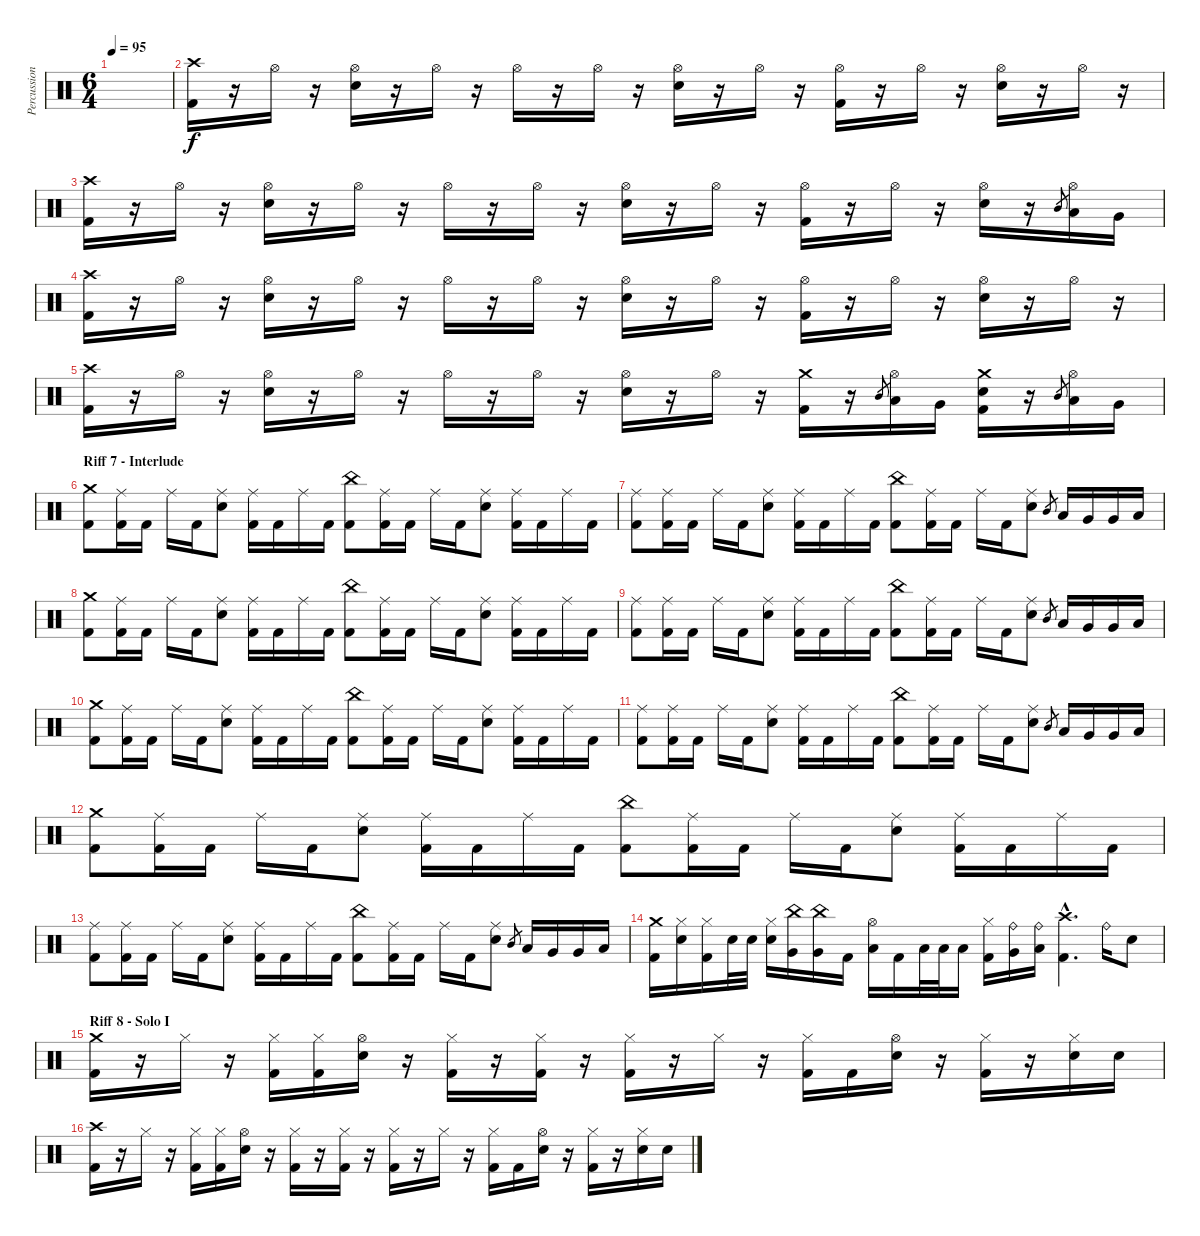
\track ("Percussion" "Percussion") {instrument percussion}
\staff {score}
\articulation defaults
\ts (6 4)
\tempo 95
\clef neutral
\ks c
|
("Crash high (hit)" "Kick (hit) 2").16 r.16 "Hi-Hat (open)".16 r.16 ("Hi-Hat (open)" "Electric Snare (hit)").16 r.16 "Hi-Hat (open)".16 r.16 "Hi-Hat (open)".16 r.16 "Hi-Hat (open)".16 r.16 ("Hi-Hat (open)" "Electric Snare (hit)").16 r.16 "Hi-Hat (open)".16 r.16 ("Hi-Hat (open)" "Kick (hit) 2").16 r.16 "Hi-Hat (open)".16 r.16 ("Hi-Hat (open)" "Electric Snare (hit)").16 r.16 "Hi-Hat (open)".16 r.16 |
("Crash high (hit)" "Kick (hit) 2").16 r.16 "Hi-Hat (open)".16 r.16 ("Hi-Hat (open)" "Electric Snare (hit)").16 r.16 "Hi-Hat (open)".16 r.16 "Hi-Hat (open)".16 r.16 "Hi-Hat (open)".16 r.16 ("Hi-Hat (open)" "Electric Snare (hit)").16 r.16 "Hi-Hat (open)".16 r.16 ("Hi-Hat (open)" "Kick (hit) 2").16 r.16 "Hi-Hat (open)".16 r.16 ("Hi-Hat (open)" "Electric Snare (hit)").16 r.16 "Mid Tom (hit)".8{gr} ("Hi-Hat (open)" "Low Tom (hit)").16 "Very Low Tom (hit)".16 |
("Crash high (hit)" "Kick (hit) 2").16 r.16 "Hi-Hat (open)".16 r.16 ("Hi-Hat (open)" "Electric Snare (hit)").16 r.16 "Hi-Hat (open)".16 r.16 "Hi-Hat (open)".16 r.16 "Hi-Hat (open)".16 r.16 ("Hi-Hat (open)" "Electric Snare (hit)").16 r.16 "Hi-Hat (open)".16 r.16 ("Hi-Hat (open)" "Kick (hit) 2").16 r.16 "Hi-Hat (open)".16 r.16 ("Hi-Hat (open)" "Electric Snare (hit)").16 r.16 "Hi-Hat (open)".16 r.16 |
("Crash high (hit)" "Kick (hit) 2").16 r.16 "Hi-Hat (open)".16 r.16 ("Hi-Hat (open)" "Electric Snare (hit)").16 r.16 "Hi-Hat (open)".16 r.16 "Hi-Hat (open)".16 r.16 "Hi-Hat (open)".16 r.16 ("Hi-Hat (open)" "Electric Snare (hit)").16 r.16 "Hi-Hat (open)".16 r.16 ("Crash medium (hit)" "Kick (hit) 2").16 r.16 "Mid Tom (hit)".8{gr} ("Hi-Hat (open)" "Low Tom (hit)").16 "Very Low Tom (hit)".16 ("Crash medium (hit)" "Electric Snare (hit)" "Kick (hit) 2").16 r.16 "Mid Tom (hit)".8{gr} ("Hi-Hat (open)" "Low Tom (hit)").16 "Very Low Tom (hit)".16 |
\section ("" "Riff 7 - Interlude")
("Crash medium (hit)" "Kick (hit) 2").8 ("Ride (middle)" "Kick (hit) 2").16 "Kick (hit) 2".16 "Ride (middle)".16 "Kick (hit) 2".16 ("Ride (middle)" "Electric Snare (hit)").8 ("Ride (middle)" "Kick (hit) 2").16 "Kick (hit) 2".16 "Ride (middle)".16 "Kick (hit) 2".16 ("China (hit)" "Kick (hit) 2").8 ("Ride (middle)" "Kick (hit) 2").16 "Kick (hit) 2".16 "Ride (middle)".16 "Kick (hit) 2".16 ("Ride (middle)" "Electric Snare (hit)").8 ("Ride (middle)" "Kick (hit) 2").16 "Kick (hit) 2".16 "Ride (middle)".16 "Kick (hit) 2".16 |
("Ride (middle)" "Kick (hit) 2").8 ("Ride (middle)" "Kick (hit) 2").16 "Kick (hit) 2".16 "Ride (middle)".16 "Kick (hit) 2".16 ("Ride (middle)" "Electric Snare (hit)").8 ("Ride (middle)" "Kick (hit) 2").16 "Kick (hit) 2".16 "Ride (middle)".16 "Kick (hit) 2".16 ("China (hit)" "Kick (hit) 2").8 ("Ride (middle)" "Kick (hit) 2").16 "Kick (hit) 2".16 "Ride (middle)".16 "Kick (hit) 2".16 ("Ride (middle)" "Electric Snare (hit)").8 "Mid Tom (hit)".8{gr} "Low Tom (hit)".16 "Very Low Tom (hit)".16 "Very Low Tom (hit)".16 "Low Floor Tom (hit)".16 |
("Crash medium (hit)" "Kick (hit) 2").8 ("Ride (middle)" "Kick (hit) 2").16 "Kick (hit) 2".16 "Ride (middle)".16 "Kick (hit) 2".16 ("Ride (middle)" "Electric Snare (hit)").8 ("Ride (middle)" "Kick (hit) 2").16 "Kick (hit) 2".16 "Ride (middle)".16 "Kick (hit) 2".16 ("China (hit)" "Kick (hit) 2").8 ("Ride (middle)" "Kick (hit) 2").16 "Kick (hit) 2".16 "Ride (middle)".16 "Kick (hit) 2".16 ("Ride (middle)" "Electric Snare (hit)").8 ("Ride (middle)" "Kick (hit) 2").16 "Kick (hit) 2".16 "Ride (middle)".16 "Kick (hit) 2".16 |
("Ride (middle)" "Kick (hit) 2").8 ("Ride (middle)" "Kick (hit) 2").16 "Kick (hit) 2".16 "Ride (middle)".16 "Kick (hit) 2".16 ("Ride (middle)" "Electric Snare (hit)").8 ("Ride (middle)" "Kick (hit) 2").16 "Kick (hit) 2".16 "Ride (middle)".16 "Kick (hit) 2".16 ("China (hit)" "Kick (hit) 2").8 ("Ride (middle)" "Kick (hit) 2").16 "Kick (hit) 2".16 "Ride (middle)".16 "Kick (hit) 2".16 ("Ride (middle)" "Electric Snare (hit)").8 "Mid Tom (hit)".8{gr} "Low Tom (hit)".16 "Very Low Tom (hit)".16 "Very Low Tom (hit)".16 "Low Floor Tom (hit)".16 |
("Crash medium (hit)" "Kick (hit) 2").8 ("Ride (middle)" "Kick (hit) 2").16 "Kick (hit) 2".16 "Ride (middle)".16 "Kick (hit) 2".16 ("Ride (middle)" "Electric Snare (hit)").8 ("Ride (middle)" "Kick (hit) 2").16 "Kick (hit) 2".16 "Ride (middle)".16 "Kick (hit) 2".16 ("China (hit)" "Kick (hit) 2").8 ("Ride (middle)" "Kick (hit) 2").16 "Kick (hit) 2".16 "Ride (middle)".16 "Kick (hit) 2".16 ("Ride (middle)" "Electric Snare (hit)").8 ("Ride (middle)" "Kick (hit) 2").16 "Kick (hit) 2".16 "Ride (middle)".16 "Kick (hit) 2".16 |
("Ride (middle)" "Kick (hit) 2").8 ("Ride (middle)" "Kick (hit) 2").16 "Kick (hit) 2".16 "Ride (middle)".16 "Kick (hit) 2".16 ("Ride (middle)" "Electric Snare (hit)").8 ("Ride (middle)" "Kick (hit) 2").16 "Kick (hit) 2".16 "Ride (middle)".16 "Kick (hit) 2".16 ("China (hit)" "Kick (hit) 2").8 ("Ride (middle)" "Kick (hit) 2").16 "Kick (hit) 2".16 "Ride (middle)".16 "Kick (hit) 2".16 ("Ride (middle)" "Electric Snare (hit)").8 "Mid Tom (hit)".8{gr} "Low Tom (hit)".16 "Very Low Tom (hit)".16 "Very Low Tom (hit)".16 "Low Floor Tom (hit)".16 |
("Crash medium (hit)" "Kick (hit) 2").8 ("Ride (middle)" "Kick (hit) 2").16 "Kick (hit) 2".16 "Ride (middle)".16 "Kick (hit) 2".16 ("Ride (middle)" "Electric Snare (hit)").8 ("Ride (middle)" "Kick (hit) 2").16 "Kick (hit) 2".16 "Ride (middle)".16 "Kick (hit) 2".16 ("China (hit)" "Kick (hit) 2").8 ("Ride (middle)" "Kick (hit) 2").16 "Kick (hit) 2".16 "Ride (middle)".16 "Kick (hit) 2".16 ("Ride (middle)" "Electric Snare (hit)").8 ("Ride (middle)" "Kick (hit) 2").16 "Kick (hit) 2".16 "Ride (middle)".16 "Kick (hit) 2".16 |
("Ride (middle)" "Kick (hit) 2").8 ("Ride (middle)" "Kick (hit) 2").16 "Kick (hit) 2".16 "Ride (middle)".16 "Kick (hit) 2".16 ("Ride (middle)" "Electric Snare (hit)").8 ("Ride (middle)" "Kick (hit) 2").16 "Kick (hit) 2".16 "Ride (middle)".16 "Kick (hit) 2".16 ("China (hit)" "Kick (hit) 2").8 ("Ride (middle)" "Kick (hit) 2").16 "Kick (hit) 2".16 "Ride (middle)".16 "Kick (hit) 2".16 ("Ride (middle)" "Electric Snare (hit)").8 "Mid Tom (hit)".8{gr} "Low Tom (hit)".16 "Very Low Tom (hit)".16 "Very Low Tom (hit)".16 "Low Floor Tom (hit)".16 |
("Crash medium (hit)" "Kick (hit) 2").16 ("Hi-Hat (closed)" "Electric Snare (hit)").16 ("Hi-Hat (closed)" "Kick (hit) 2").16 "Electric Snare (hit)".32 "Electric Snare (hit)".32 ("Hi-Hat (closed)" "Electric Snare (hit)").16 ("China (hit)" "Very Low Tom (hit)").16 ("China (hit)" "Very Low Tom (hit)").16 "Kick (hit) 2".16 ("Hi-Hat (open)" "Low Floor Tom (hit)").16 "Kick (hit) 2".16 "Low Tom (hit)".32 "Low Tom (hit)".32 "Low Tom (hit)".16 ("Hi-Hat (closed)" "Kick (hit) 2").16 ("Ride (bell)" "Very Low Tom (hit)").16 ("Ride (bell)" "Low Floor Tom (hit)").16 ("Crash high (hit)"{hac} "Kick (hit) 2"{hac}).4{d} "Ride (bell)".16 "Electric Snare (hit)".8 |
\section ("" "Riff 8 - Solo I")
("Crash medium (hit)" "Kick (hit) 2").16 r.16 "Hi-Hat (closed)".16 r.16 ("Hi-Hat (closed)" "Kick (hit) 2").16 ("Hi-Hat (closed)" "Kick (hit) 2").16 ("Hi-Hat (open)" "Electric Snare (hit)").16 r.16 ("Hi-Hat (closed)" "Kick (hit) 2").16 r.16 ("Hi-Hat (closed)" "Kick (hit) 2").16 r.16 ("Hi-Hat (closed)" "Kick (hit) 2").16 r.16 "Hi-Hat (closed)".16 r.16 ("Hi-Hat (closed)" "Kick (hit) 2").16 "Kick (hit) 2".16 ("Hi-Hat (open)" "Electric Snare (hit)").16 r.16 ("Hi-Hat (closed)" "Kick (hit) 2").16 r.16 ("Hi-Hat (closed)" "Electric Snare (hit)").16 "Electric Snare (hit)".16 |
("Crash high (hit)" "Kick (hit) 2").16 r.16 "Hi-Hat (closed)".16 r.16 ("Hi-Hat (closed)" "Kick (hit) 2").16 ("Hi-Hat (closed)" "Kick (hit) 2").16 ("Hi-Hat (open)" "Electric Snare (hit)").16 r.16 ("Hi-Hat (closed)" "Kick (hit) 2").16 r.16 ("Hi-Hat (closed)" "Kick (hit) 2").16 r.16 ("Hi-Hat (closed)" "Kick (hit) 2").16 r.16 "Hi-Hat (closed)".16 r.16 ("Hi-Hat (closed)" "Kick (hit) 2").16 "Kick (hit) 2".16 ("Hi-Hat (open)" "Electric Snare (hit)").16 r.16 ("Hi-Hat (closed)" "Kick (hit) 2").16 r.16 ("Hi-Hat (closed)" "Electric Snare (hit)").16 "Electric Snare (hit)".16
